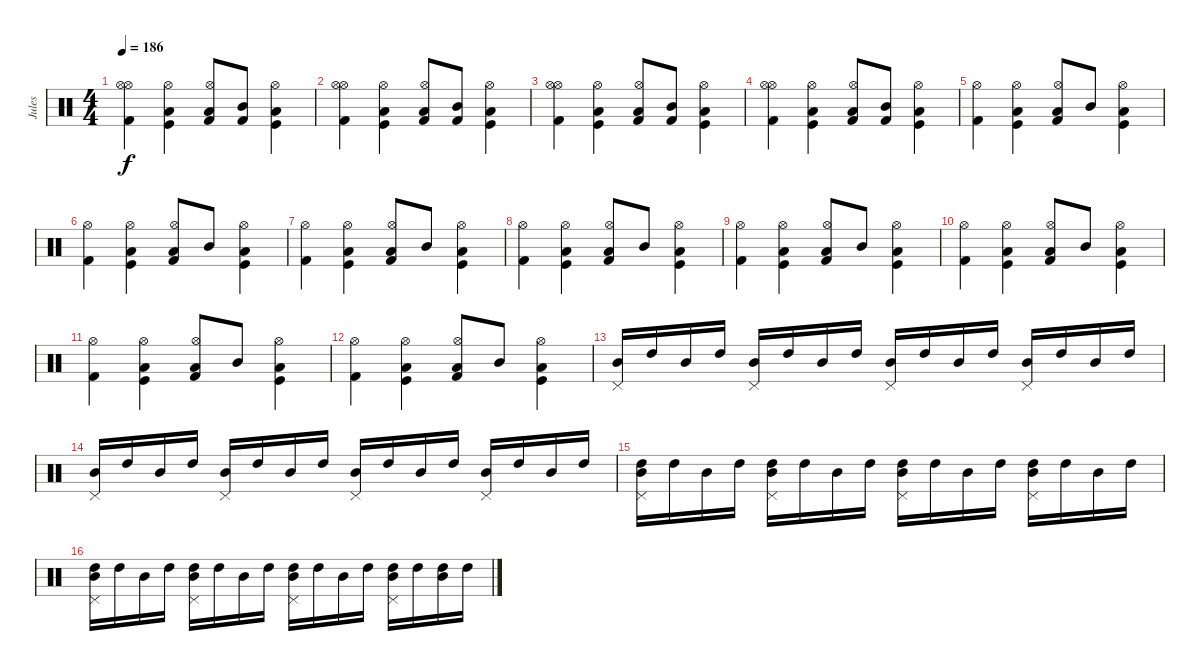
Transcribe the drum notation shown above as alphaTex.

\track ("Jules" "Jules") {instrument percussion}
\staff {score}
\articulation defaults
\ts (4 4)
\tempo 186
\clef neutral
\ks c
("Kick (hit) 2" "Hi-Hat (open)" "Hi-Hat (open)").4{dy f} ("Kick (hit)" "Low Floor Tom (hit)" "Hi-Hat (open)").4 ("Kick (hit) 2" "Hi-Hat (open)" "Low Floor Tom (hit)").8 ("Mid Tom (hit)" "Kick (hit) 2").8 ("Kick (hit)" "Low Floor Tom (hit)" "Hi-Hat (open)").4 |
("Kick (hit) 2" "Hi-Hat (open)" "Hi-Hat (open)").4 ("Kick (hit)" "Low Floor Tom (hit)" "Hi-Hat (open)").4 ("Kick (hit) 2" "Hi-Hat (open)" "Low Floor Tom (hit)").8 ("Mid Tom (hit)" "Kick (hit) 2").8 ("Kick (hit)" "Low Floor Tom (hit)" "Hi-Hat (open)").4 |
("Kick (hit) 2" "Hi-Hat (open)" "Hi-Hat (open)").4 ("Kick (hit)" "Low Floor Tom (hit)" "Hi-Hat (open)").4 ("Kick (hit) 2" "Hi-Hat (open)" "Low Floor Tom (hit)").8 ("Mid Tom (hit)" "Kick (hit) 2").8 ("Kick (hit)" "Low Floor Tom (hit)" "Hi-Hat (open)").4 |
("Kick (hit) 2" "Hi-Hat (open)" "Hi-Hat (open)").4 ("Kick (hit)" "Low Floor Tom (hit)" "Hi-Hat (open)").4 ("Kick (hit) 2" "Hi-Hat (open)" "Low Floor Tom (hit)").8 ("Mid Tom (hit)" "Kick (hit) 2").8 ("Kick (hit)" "Low Floor Tom (hit)" "Hi-Hat (open)").4 |
("Kick (hit) 2" "Hi-Hat (open)").4 ("Kick (hit)" "Low Floor Tom (hit)" "Hi-Hat (open)").4 ("Kick (hit) 2" "Hi-Hat (open)" "Low Floor Tom (hit)").8 "Mid Tom (hit)".8 ("Kick (hit)" "Low Floor Tom (hit)" "Hi-Hat (open)").4 |
("Kick (hit) 2" "Hi-Hat (open)").4 ("Kick (hit)" "Low Floor Tom (hit)" "Hi-Hat (open)").4 ("Kick (hit) 2" "Hi-Hat (open)" "Low Floor Tom (hit)").8 "Mid Tom (hit)".8 ("Kick (hit)" "Low Floor Tom (hit)" "Hi-Hat (open)").4 |
("Kick (hit) 2" "Hi-Hat (open)").4 ("Kick (hit)" "Low Floor Tom (hit)" "Hi-Hat (open)").4 ("Kick (hit) 2" "Hi-Hat (open)" "Low Floor Tom (hit)").8 "Mid Tom (hit)".8 ("Kick (hit)" "Low Floor Tom (hit)" "Hi-Hat (open)").4 |
("Kick (hit) 2" "Hi-Hat (open)").4 ("Kick (hit)" "Low Floor Tom (hit)" "Hi-Hat (open)").4 ("Kick (hit) 2" "Hi-Hat (open)" "Low Floor Tom (hit)").8 "Mid Tom (hit)".8 ("Kick (hit)" "Low Floor Tom (hit)" "Hi-Hat (open)").4 |
("Kick (hit) 2" "Hi-Hat (open)").4 ("Kick (hit)" "Low Floor Tom (hit)" "Hi-Hat (open)").4 ("Kick (hit) 2" "Hi-Hat (open)" "Low Floor Tom (hit)").8 "Mid Tom (hit)".8 ("Kick (hit)" "Low Floor Tom (hit)" "Hi-Hat (open)").4 |
("Kick (hit) 2" "Hi-Hat (open)").4 ("Kick (hit)" "Low Floor Tom (hit)" "Hi-Hat (open)").4 ("Kick (hit) 2" "Hi-Hat (open)" "Low Floor Tom (hit)").8 "Mid Tom (hit)".8 ("Kick (hit)" "Low Floor Tom (hit)" "Hi-Hat (open)").4 |
("Kick (hit) 2" "Hi-Hat (open)").4 ("Kick (hit)" "Low Floor Tom (hit)" "Hi-Hat (open)").4 ("Kick (hit) 2" "Hi-Hat (open)" "Low Floor Tom (hit)").8 "Mid Tom (hit)".8 ("Kick (hit)" "Low Floor Tom (hit)" "Hi-Hat (open)").4 |
("Kick (hit) 2" "Hi-Hat (open)").4 ("Kick (hit)" "Low Floor Tom (hit)" "Hi-Hat (open)").4 ("Kick (hit) 2" "Hi-Hat (open)" "Low Floor Tom (hit)").8 "Mid Tom (hit)".8 ("Kick (hit)" "Low Floor Tom (hit)" "Hi-Hat (open)").4 |
("Pedal Hi-Hat (hit)" "Mid Tom (hit)").16 "High Tom (hit)".16 "Mid Tom (hit)".16 "High Tom (hit)".16 ("Pedal Hi-Hat (hit)" "Mid Tom (hit)").16 "High Tom (hit)".16 "Mid Tom (hit)".16 "High Tom (hit)".16 ("Pedal Hi-Hat (hit)" "Mid Tom (hit)").16 "High Tom (hit)".16 "Mid Tom (hit)".16 "High Tom (hit)".16 ("Pedal Hi-Hat (hit)" "Mid Tom (hit)").16 "High Tom (hit)".16 "Mid Tom (hit)".16 "High Tom (hit)".16 |
("Pedal Hi-Hat (hit)" "Mid Tom (hit)").16 "High Tom (hit)".16 "Mid Tom (hit)".16 "High Tom (hit)".16 ("Pedal Hi-Hat (hit)" "Mid Tom (hit)").16 "High Tom (hit)".16 "Mid Tom (hit)".16 "High Tom (hit)".16 ("Pedal Hi-Hat (hit)" "Mid Tom (hit)").16 "High Tom (hit)".16 "Mid Tom (hit)".16 "High Tom (hit)".16 ("Pedal Hi-Hat (hit)" "Mid Tom (hit)").16 "High Tom (hit)".16 "Mid Tom (hit)".16 "High Tom (hit)".16 |
("Pedal Hi-Hat (hit)" "Mid Tom (hit)" "High Tom (hit)").16 "High Tom (hit)".16 "Mid Tom (hit)".16 "High Tom (hit)".16 ("Pedal Hi-Hat (hit)" "Mid Tom (hit)" "High Tom (hit)").16 "High Tom (hit)".16 "Mid Tom (hit)".16 "High Tom (hit)".16 ("Pedal Hi-Hat (hit)" "Mid Tom (hit)" "High Tom (hit)").16 "High Tom (hit)".16 "Mid Tom (hit)".16 "High Tom (hit)".16 ("Pedal Hi-Hat (hit)" "Mid Tom (hit)" "High Tom (hit)").16 "High Tom (hit)".16 "Mid Tom (hit)".16 "High Tom (hit)".16 |
("Pedal Hi-Hat (hit)" "Mid Tom (hit)" "High Tom (hit)").16 "High Tom (hit)".16 "Mid Tom (hit)".16 "High Tom (hit)".16 ("Pedal Hi-Hat (hit)" "Mid Tom (hit)" "High Tom (hit)").16 "High Tom (hit)".16 "Mid Tom (hit)".16 "High Tom (hit)".16 ("Pedal Hi-Hat (hit)" "Mid Tom (hit)" "High Tom (hit)").16 "High Tom (hit)".16 "Mid Tom (hit)".16 "High Tom (hit)".16 ("Pedal Hi-Hat (hit)" "Mid Tom (hit)" "High Tom (hit)").16 "High Tom (hit)".16 ("Mid Tom (hit)" "High Tom (hit)").16 "High Tom (hit)".16
